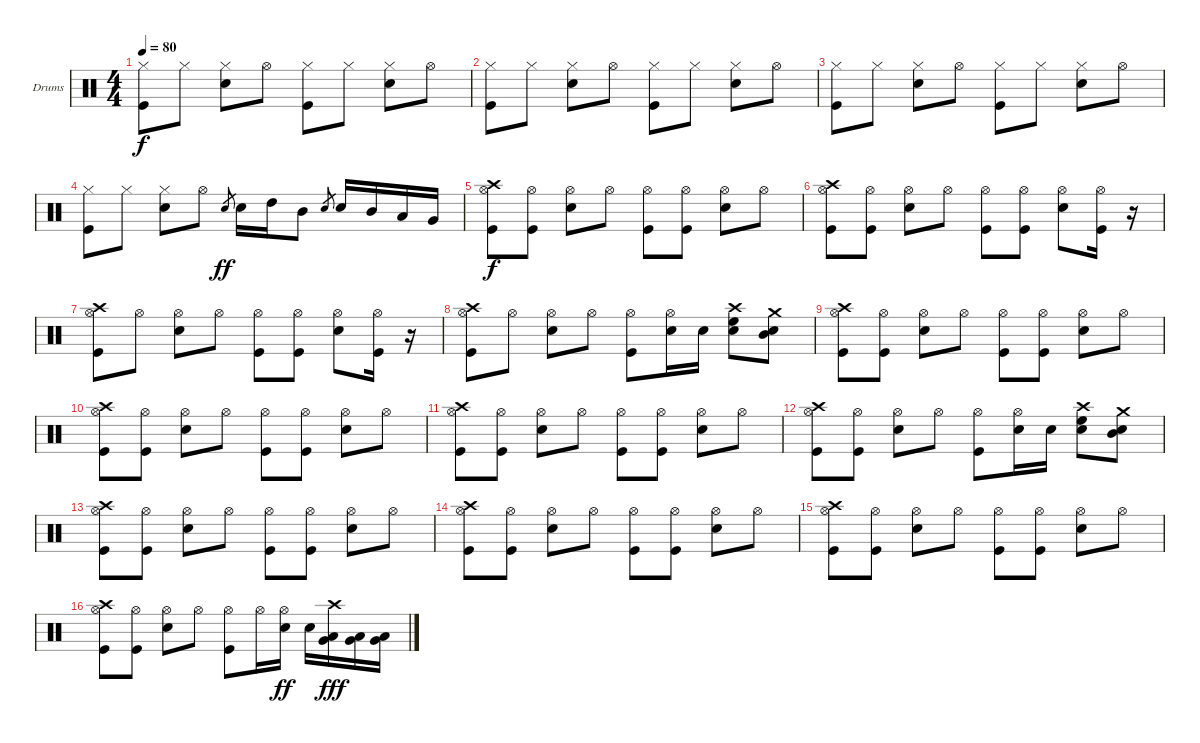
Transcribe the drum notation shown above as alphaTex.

\bracketExtendMode groupsimilarinstruments
\firstSystemTrackNameOrientation horizontal
\otherSystemsTrackNameOrientation horizontal
\track ("Drumkit" "Drums") {instrument percussion}
\staff {score}
\articulation defaults
\ts (4 4)
\tempo 80
\clef neutral
\ks c
("Hi-Hat (closed)" "Kick (hit)").8{dy f} "Hi-Hat (closed)".8 ("Hi-Hat (closed)" "Snare (hit) 2").8 "Hi-Hat (open)".8 ("Hi-Hat (closed)" "Kick (hit)").8 "Hi-Hat (closed)".8 ("Hi-Hat (closed)" "Snare (hit) 2").8 "Hi-Hat (open)".8 |
("Hi-Hat (closed)" "Kick (hit)").8 "Hi-Hat (closed)".8 ("Hi-Hat (closed)" "Snare (hit) 2").8 "Hi-Hat (open)".8 ("Hi-Hat (closed)" "Kick (hit)").8 "Hi-Hat (closed)".8 ("Hi-Hat (closed)" "Snare (hit) 2").8 "Hi-Hat (open)".8 |
("Hi-Hat (closed)" "Kick (hit)").8 "Hi-Hat (closed)".8 ("Hi-Hat (closed)" "Snare (hit) 2").8 "Hi-Hat (open)".8 ("Hi-Hat (closed)" "Kick (hit)").8 "Hi-Hat (closed)".8 ("Hi-Hat (closed)" "Snare (hit) 2").8 "Hi-Hat (open)".8 |
("Hi-Hat (closed)" "Kick (hit)").8 "Hi-Hat (closed)".8 ("Hi-Hat (closed)" "Snare (hit) 2").8 "Hi-Hat (open)".8 "Snare (hit) 2".8{gr dy ff} "Snare (hit) 2".16 "High Tom (hit)".16 "Mid Tom (hit)".8 "Snare (hit) 2".8{gr} "Snare (hit) 2".16 "Mid Tom (hit)".16 "Low Tom (hit)".16 "Very Low Tom (hit)".16 |
("Hi-Hat (open)" "Crash high (hit)" "Kick (hit)").8{dy f} ("Hi-Hat (open)" "Kick (hit)").8 ("Hi-Hat (open)" "Snare (hit) 2").8 "Hi-Hat (open)".8 ("Hi-Hat (open)" "Kick (hit)").8 ("Hi-Hat (open)" "Kick (hit)").8 ("Hi-Hat (open)" "Snare (hit) 2").8 "Hi-Hat (open)".8 |
("Hi-Hat (open)" "Crash high (hit)" "Kick (hit)").8 ("Hi-Hat (open)" "Kick (hit)").8 ("Hi-Hat (open)" "Snare (hit) 2").8 "Hi-Hat (open)".8 ("Hi-Hat (open)" "Kick (hit)").8 ("Hi-Hat (open)" "Kick (hit)").8 ("Hi-Hat (open)" "Snare (hit) 2").8 ("Hi-Hat (open)" "Kick (hit)").16 r.16 |
("Hi-Hat (open)" "Crash high (hit)" "Kick (hit)").8 "Hi-Hat (open)".8 ("Hi-Hat (open)" "Snare (hit) 2").8 "Hi-Hat (open)".8 ("Hi-Hat (open)" "Kick (hit)").8 ("Hi-Hat (open)" "Kick (hit)").8 ("Hi-Hat (open)" "Snare (hit) 2").8 ("Hi-Hat (open)" "Kick (hit)").16 r.16 |
("Hi-Hat (open)" "Crash high (hit)" "Kick (hit)").8 "Hi-Hat (open)".8 ("Hi-Hat (open)" "Snare (hit) 2").8 "Hi-Hat (open)".8 ("Hi-Hat (open)" "Kick (hit)").8 ("Hi-Hat (open)" "Snare (hit) 2").16 "Snare (hit) 2".16 ("Crash high (hit)" "High Floor Tom (hit)" "Snare (hit) 2").8 ("Crash medium (hit)" "Mid Tom (hit)" "Snare (hit) 2").8 |
("Hi-Hat (open)" "Crash high (hit)" "Kick (hit)").8 ("Hi-Hat (open)" "Kick (hit)").8 ("Hi-Hat (open)" "Snare (hit) 2").8 "Hi-Hat (open)".8 ("Hi-Hat (open)" "Kick (hit)").8 ("Hi-Hat (open)" "Kick (hit)").8 ("Hi-Hat (open)" "Snare (hit) 2").8 "Hi-Hat (open)".8 |
("Hi-Hat (open)" "Crash high (hit)" "Kick (hit)").8 ("Hi-Hat (open)" "Kick (hit)").8 ("Hi-Hat (open)" "Snare (hit) 2").8 "Hi-Hat (open)".8 ("Hi-Hat (open)" "Kick (hit)").8 ("Hi-Hat (open)" "Kick (hit)").8 ("Hi-Hat (open)" "Snare (hit) 2").8 "Hi-Hat (open)".8 |
("Hi-Hat (open)" "Crash high (hit)" "Kick (hit)").8 ("Hi-Hat (open)" "Kick (hit)").8 ("Hi-Hat (open)" "Snare (hit) 2").8 "Hi-Hat (open)".8 ("Hi-Hat (open)" "Kick (hit)").8 ("Hi-Hat (open)" "Kick (hit)").8 ("Hi-Hat (open)" "Snare (hit) 2").8 "Hi-Hat (open)".8 |
("Hi-Hat (open)" "Crash high (hit)" "Kick (hit)").8 ("Hi-Hat (open)" "Kick (hit)").8 ("Hi-Hat (open)" "Snare (hit) 2").8 "Hi-Hat (open)".8 ("Hi-Hat (open)" "Kick (hit)").8 ("Hi-Hat (open)" "Snare (hit) 2").16 "Snare (hit) 2".16 ("Crash high (hit)" "High Floor Tom (hit)" "Snare (hit) 2").8 ("Crash medium (hit)" "Mid Tom (hit)" "Snare (hit) 2").8 |
("Hi-Hat (open)" "Crash high (hit)" "Kick (hit)").8 ("Hi-Hat (open)" "Kick (hit)").8 ("Hi-Hat (open)" "Snare (hit) 2").8 "Hi-Hat (open)".8 ("Hi-Hat (open)" "Kick (hit)").8 ("Hi-Hat (open)" "Kick (hit)").8 ("Hi-Hat (open)" "Snare (hit) 2").8 "Hi-Hat (open)".8 |
("Hi-Hat (open)" "Crash high (hit)" "Kick (hit)").8 ("Hi-Hat (open)" "Kick (hit)").8 ("Hi-Hat (open)" "Snare (hit) 2").8 "Hi-Hat (open)".8 ("Hi-Hat (open)" "Kick (hit)").8 ("Hi-Hat (open)" "Kick (hit)").8 ("Hi-Hat (open)" "Snare (hit) 2").8 "Hi-Hat (open)".8 |
("Hi-Hat (open)" "Crash high (hit)" "Kick (hit)").8 ("Hi-Hat (open)" "Kick (hit)").8 ("Hi-Hat (open)" "Snare (hit) 2").8 "Hi-Hat (open)".8 ("Hi-Hat (open)" "Kick (hit)").8 ("Hi-Hat (open)" "Kick (hit)").8 ("Hi-Hat (open)" "Snare (hit) 2").8 "Hi-Hat (open)".8 |
("Hi-Hat (open)" "Crash high (hit)" "Kick (hit)").8 ("Hi-Hat (open)" "Kick (hit)").8 ("Hi-Hat (open)" "Snare (hit) 2").8 "Hi-Hat (open)".8 ("Hi-Hat (open)" "Kick (hit)").8 "Hi-Hat (open)".16 ("Hi-Hat (open)" "Snare (hit) 2").16{dy ff} "Snare (hit) 2".16 ("Crash high (hit)" "Very Low Tom (hit)" "Low Tom (hit)").16{dy fff} ("Very Low Tom (hit)" "Low Tom (hit)").16 ("Very Low Tom (hit)" "Low Tom (hit)").16
